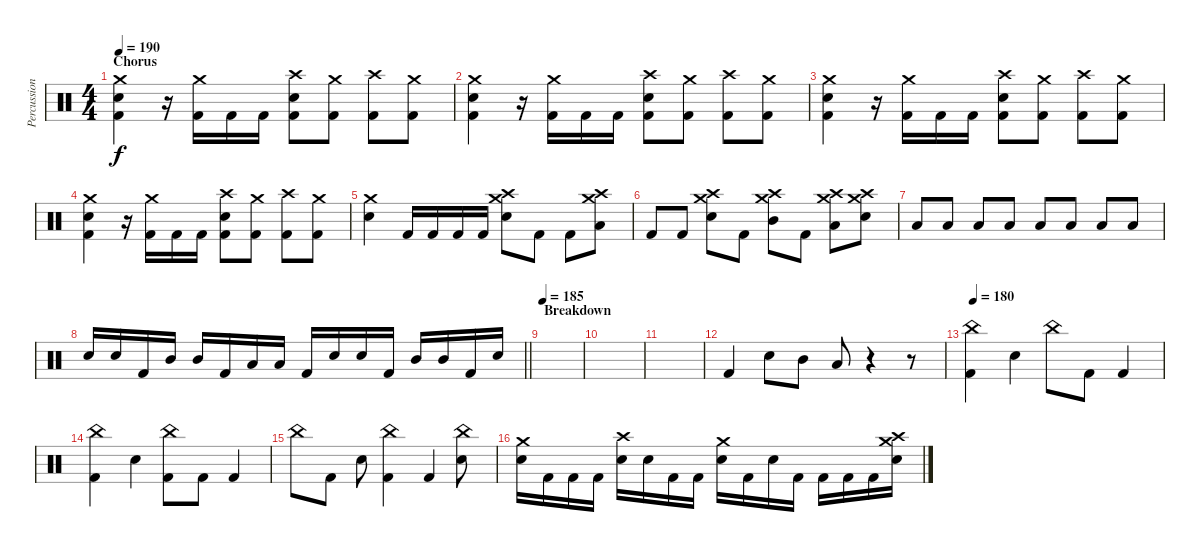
\track ("Percussion" "Percussion") {instrument percussion}
\staff {score}
\articulation defaults
\ts (4 4)
\section ("" "Chorus")
\tempo 190
\clef neutral
\ks c
("Crash medium (hit)" "Electric Snare (hit)" "Kick (hit) 2").4{dy f} r.16 ("Crash medium (hit)" "Kick (hit) 2").16 "Kick (hit) 2".16 "Kick (hit) 2".16 ("Crash high (hit)" "Electric Snare (hit)" "Kick (hit) 2").8 ("Crash medium (hit)" "Kick (hit) 2").8 ("Crash high (hit)" "Kick (hit) 2").8 ("Crash medium (hit)" "Kick (hit) 2").8 |
("Crash medium (hit)" "Electric Snare (hit)" "Kick (hit) 2").4 r.16 ("Crash medium (hit)" "Kick (hit) 2").16 "Kick (hit) 2".16 "Kick (hit) 2".16 ("Crash high (hit)" "Electric Snare (hit)" "Kick (hit) 2").8 ("Crash medium (hit)" "Kick (hit) 2").8 ("Crash high (hit)" "Kick (hit) 2").8 ("Crash medium (hit)" "Kick (hit) 2").8 |
("Crash medium (hit)" "Electric Snare (hit)" "Kick (hit) 2").4 r.16 ("Crash medium (hit)" "Kick (hit) 2").16 "Kick (hit) 2".16 "Kick (hit) 2".16 ("Crash high (hit)" "Electric Snare (hit)" "Kick (hit) 2").8 ("Crash medium (hit)" "Kick (hit) 2").8 ("Crash high (hit)" "Kick (hit) 2").8 ("Crash medium (hit)" "Kick (hit) 2").8 |
("Crash medium (hit)" "Electric Snare (hit)" "Kick (hit) 2").4 r.16 ("Crash medium (hit)" "Kick (hit) 2").16 "Kick (hit) 2".16 "Kick (hit) 2".16 ("Crash high (hit)" "Electric Snare (hit)" "Kick (hit) 2").8 ("Crash medium (hit)" "Kick (hit) 2").8 ("Crash high (hit)" "Kick (hit) 2").8 ("Crash medium (hit)" "Kick (hit) 2").8 |
("Crash medium (hit)" "Electric Snare (hit)").4 "Kick (hit) 2".16 "Kick (hit) 2".16 "Kick (hit) 2".16 "Kick (hit) 2".16 ("Crash high (hit)" "Crash medium (hit)" "Electric Snare (hit)").8 "Kick (hit) 2".8 "Kick (hit) 2".8 ("Crash high (hit)" "Crash medium (hit)" "Low Tom (hit)").8 |
"Kick (hit) 2".8 "Kick (hit) 2".8 ("Crash high (hit)" "Crash medium (hit)" "Electric Snare (hit)").8 "Kick (hit) 2".8 ("Crash high (hit)" "Crash medium (hit)" "Mid Tom (hit)").8 "Kick (hit) 2".8 ("Crash high (hit)" "Crash medium (hit)" "Low Tom (hit)").8 ("Crash high (hit)" "Crash medium (hit)" "Electric Snare (hit)").8 |
"Low Tom (hit)".8 "Low Tom (hit)".8 "Low Tom (hit)".8 "Low Tom (hit)".8 "Low Tom (hit)".8 "Low Tom (hit)".8 "Low Tom (hit)".8 "Low Tom (hit)".8 |
\barLineRight lightlight "Electric Snare (hit)".16 "Electric Snare (hit)".16 "Kick (hit) 2".16 "Mid Tom (hit)".16 "Mid Tom (hit)".16 "Kick (hit) 2".16 "Low Tom (hit)".16 "Low Tom (hit)".16 "Kick (hit) 2".16 "Electric Snare (hit)".16 "Electric Snare (hit)".16 "Kick (hit) 2".16 "Mid Tom (hit)".16 "Mid Tom (hit)".16 "Kick (hit) 2".16 "Electric Snare (hit)".16
|
\section ("" "Breakdown")
\tempo 185
|
|
|
"Kick (hit) 2".4 "Electric Snare (hit)".8 "Mid Tom (hit)".8 "Low Tom (hit)".8 r.4 r.8 |
\tempo 180
("China (hit)" "Kick (hit) 2").4 "Electric Snare (hit)".4 "China (hit)".8 "Kick (hit) 2".8 "Kick (hit) 2".4 |
("China (hit)" "Kick (hit) 2").4 "Electric Snare (hit)".4 ("China (hit)" "Kick (hit) 2").8 "Kick (hit) 2".8 "Kick (hit) 2".4 |
"China (hit)".8 "Kick (hit) 2".8 "Electric Snare (hit)".8 ("China (hit)" "Kick (hit) 2").4 "Kick (hit) 2".4 ("China (hit)" "Electric Snare (hit)").8 |
("Crash medium (hit)" "Electric Snare (hit)").16 "Kick (hit) 2".16 "Kick (hit) 2".16 "Kick (hit) 2".16 ("Crash high (hit)" "Electric Snare (hit)").16 "Electric Snare (hit)".16 "Kick (hit) 2".16 "Kick (hit) 2".16 ("Crash medium (hit)" "Electric Snare (hit)").16 "Kick (hit) 2".16 "Electric Snare (hit)".16 "Kick (hit) 2".16 "Kick (hit) 2".16 "Kick (hit) 2".16 "Kick (hit) 2".16 ("Crash high (hit)" "Crash medium (hit)" "Electric Snare (hit)").16
